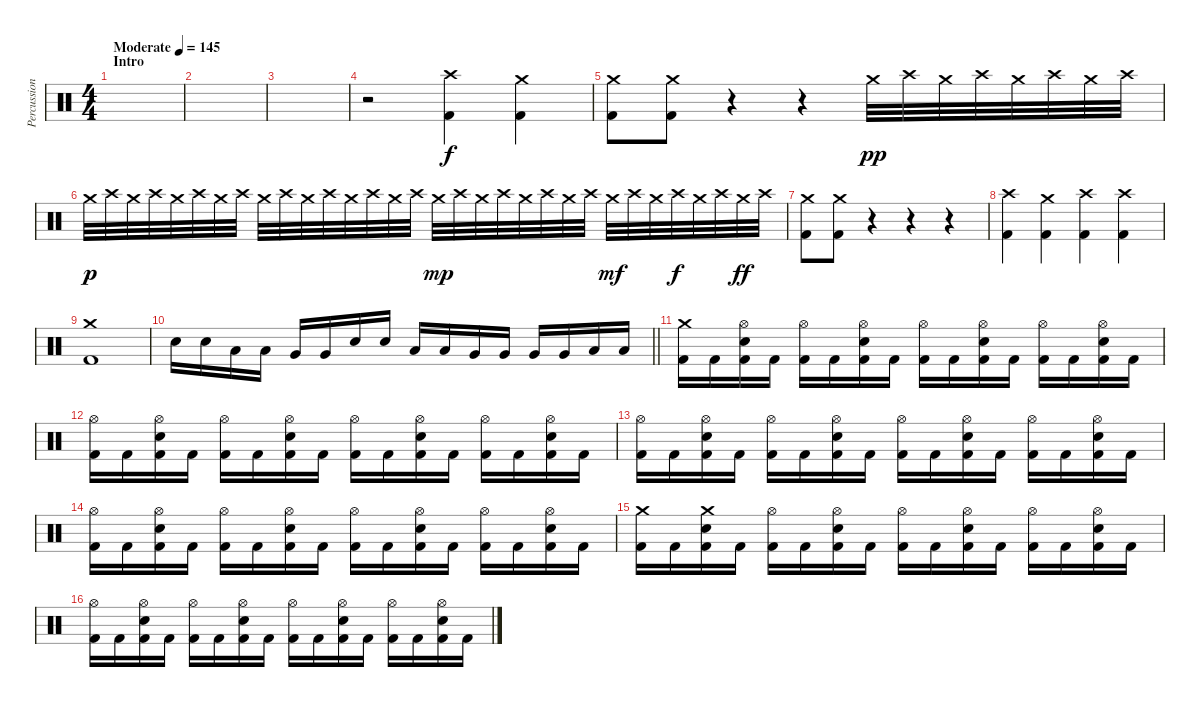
\track ("Percussion" "Percussion") {instrument percussion}
\staff {score}
\articulation defaults
\ts (4 4)
\section ("" "Intro")
\tempo (145 "Moderate")
\clef neutral
\ks c
|
|
|
r.2 ("Crash high (hit)" "Kick (hit) 2").4 ("Crash medium (hit)" "Kick (hit) 2").4 |
("Crash medium (hit)" "Kick (hit) 2").8 ("Crash medium (hit)" "Kick (hit) 2").8 r.4 r.4 "Crash medium (hit)".32{dy pp} "Crash high (hit)".32 "Crash medium (hit)".32 "Crash high (hit)".32 "Crash medium (hit)".32 "Crash high (hit)".32 "Crash medium (hit)".32 "Crash high (hit)".32 |
"Crash medium (hit)".32{dy p} "Crash high (hit)".32 "Crash medium (hit)".32 "Crash high (hit)".32 "Crash medium (hit)".32 "Crash high (hit)".32 "Crash medium (hit)".32 "Crash high (hit)".32 "Crash medium (hit)".32 "Crash high (hit)".32 "Crash medium (hit)".32 "Crash high (hit)".32 "Crash medium (hit)".32 "Crash high (hit)".32 "Crash medium (hit)".32 "Crash high (hit)".32 "Crash medium (hit)".32{dy mp} "Crash high (hit)".32 "Crash medium (hit)".32 "Crash high (hit)".32 "Crash medium (hit)".32 "Crash high (hit)".32 "Crash medium (hit)".32 "Crash high (hit)".32 "Crash medium (hit)".32{dy mf} "Crash high (hit)".32 "Crash medium (hit)".32 "Crash high (hit)".32{dy f} "Crash medium (hit)".32 "Crash high (hit)".32 "Crash medium (hit)".32{dy ff} "Crash high (hit)".32 |
("Crash medium (hit)" "Kick (hit) 2").8 ("Crash medium (hit)" "Kick (hit) 2").8 r.4 r.4 r.4 |
("Crash high (hit)" "Kick (hit) 2").4 ("Crash medium (hit)" "Kick (hit) 2").4 ("Crash high (hit)" "Kick (hit) 2").4 ("Crash high (hit)" "Kick (hit) 2").4 |
("Crash medium (hit)" "Kick (hit) 2").1 |
\barLineRight lightlight "Snare (hit) 2".16 "Snare (hit) 2".16 "Low Tom (hit)".16 "Low Tom (hit)".16 "Very Low Tom (hit)".16 "Very Low Tom (hit)".16 "Snare (hit) 2".16 "Snare (hit) 2".16 "Low Tom (hit)".16 "Low Tom (hit)".16 "Very Low Tom (hit)".16 "Very Low Tom (hit)".16 "Very Low Tom (hit)".16 "Very Low Tom (hit)".16 "Low Floor Tom (hit)".16 "Low Floor Tom (hit)".16
|
\section ("" "")
("Crash medium (hit)" "Kick (hit) 2").16 "Kick (hit) 2".16 ("Electric Snare (hit)" "Hi-Hat (open)" "Kick (hit) 2").16 "Kick (hit) 2".16 ("Hi-Hat (open)" "Kick (hit) 2").16 "Kick (hit) 2".16 ("Electric Snare (hit)" "Hi-Hat (open)" "Kick (hit) 2").16 "Kick (hit) 2".16 ("Hi-Hat (open)" "Kick (hit) 2").16 "Kick (hit) 2".16 ("Electric Snare (hit)" "Hi-Hat (open)" "Kick (hit) 2").16 "Kick (hit) 2".16 ("Hi-Hat (open)" "Kick (hit) 2").16 "Kick (hit) 2".16 ("Electric Snare (hit)" "Hi-Hat (open)" "Kick (hit) 2").16 "Kick (hit) 2".16 |
("Hi-Hat (open)" "Kick (hit) 2").16 "Kick (hit) 2".16 ("Electric Snare (hit)" "Hi-Hat (open)" "Kick (hit) 2").16 "Kick (hit) 2".16 ("Hi-Hat (open)" "Kick (hit) 2").16 "Kick (hit) 2".16 ("Electric Snare (hit)" "Hi-Hat (open)" "Kick (hit) 2").16 "Kick (hit) 2".16 ("Hi-Hat (open)" "Kick (hit) 2").16 "Kick (hit) 2".16 ("Electric Snare (hit)" "Hi-Hat (open)" "Kick (hit) 2").16 "Kick (hit) 2".16 ("Hi-Hat (open)" "Kick (hit) 2").16 "Kick (hit) 2".16 ("Electric Snare (hit)" "Hi-Hat (open)" "Kick (hit) 2").16 "Kick (hit) 2".16 |
("Hi-Hat (open)" "Kick (hit) 2").16 "Kick (hit) 2".16 ("Electric Snare (hit)" "Hi-Hat (open)" "Kick (hit) 2").16 "Kick (hit) 2".16 ("Hi-Hat (open)" "Kick (hit) 2").16 "Kick (hit) 2".16 ("Electric Snare (hit)" "Hi-Hat (open)" "Kick (hit) 2").16 "Kick (hit) 2".16 ("Hi-Hat (open)" "Kick (hit) 2").16 "Kick (hit) 2".16 ("Electric Snare (hit)" "Hi-Hat (open)" "Kick (hit) 2").16 "Kick (hit) 2".16 ("Hi-Hat (open)" "Kick (hit) 2").16 "Kick (hit) 2".16 ("Electric Snare (hit)" "Hi-Hat (open)" "Kick (hit) 2").16 "Kick (hit) 2".16 |
("Hi-Hat (open)" "Kick (hit) 2").16 "Kick (hit) 2".16 ("Electric Snare (hit)" "Hi-Hat (open)" "Kick (hit) 2").16 "Kick (hit) 2".16 ("Hi-Hat (open)" "Kick (hit) 2").16 "Kick (hit) 2".16 ("Electric Snare (hit)" "Hi-Hat (open)" "Kick (hit) 2").16 "Kick (hit) 2".16 ("Hi-Hat (open)" "Kick (hit) 2").16 "Kick (hit) 2".16 ("Electric Snare (hit)" "Hi-Hat (open)" "Kick (hit) 2").16 "Kick (hit) 2".16 ("Hi-Hat (open)" "Kick (hit) 2").16 "Kick (hit) 2".16 ("Electric Snare (hit)" "Hi-Hat (open)" "Kick (hit) 2").16 "Kick (hit) 2".16 |
("Crash medium (hit)" "Kick (hit) 2").16 "Kick (hit) 2".16 ("Electric Snare (hit)" "Crash medium (hit)" "Kick (hit) 2").16 "Kick (hit) 2".16 ("Hi-Hat (open)" "Kick (hit) 2").16 "Kick (hit) 2".16 ("Electric Snare (hit)" "Hi-Hat (open)" "Kick (hit) 2").16 "Kick (hit) 2".16 ("Hi-Hat (open)" "Kick (hit) 2").16 "Kick (hit) 2".16 ("Electric Snare (hit)" "Hi-Hat (open)" "Kick (hit) 2").16 "Kick (hit) 2".16 ("Hi-Hat (open)" "Kick (hit) 2").16 "Kick (hit) 2".16 ("Electric Snare (hit)" "Hi-Hat (open)" "Kick (hit) 2").16 "Kick (hit) 2".16 |
("Hi-Hat (open)" "Kick (hit) 2").16 "Kick (hit) 2".16 ("Electric Snare (hit)" "Hi-Hat (open)" "Kick (hit) 2").16 "Kick (hit) 2".16 ("Hi-Hat (open)" "Kick (hit) 2").16 "Kick (hit) 2".16 ("Electric Snare (hit)" "Hi-Hat (open)" "Kick (hit) 2").16 "Kick (hit) 2".16 ("Hi-Hat (open)" "Kick (hit) 2").16 "Kick (hit) 2".16 ("Electric Snare (hit)" "Hi-Hat (open)" "Kick (hit) 2").16 "Kick (hit) 2".16 ("Hi-Hat (open)" "Kick (hit) 2").16 "Kick (hit) 2".16 ("Electric Snare (hit)" "Hi-Hat (open)" "Kick (hit) 2").16 "Kick (hit) 2".16
